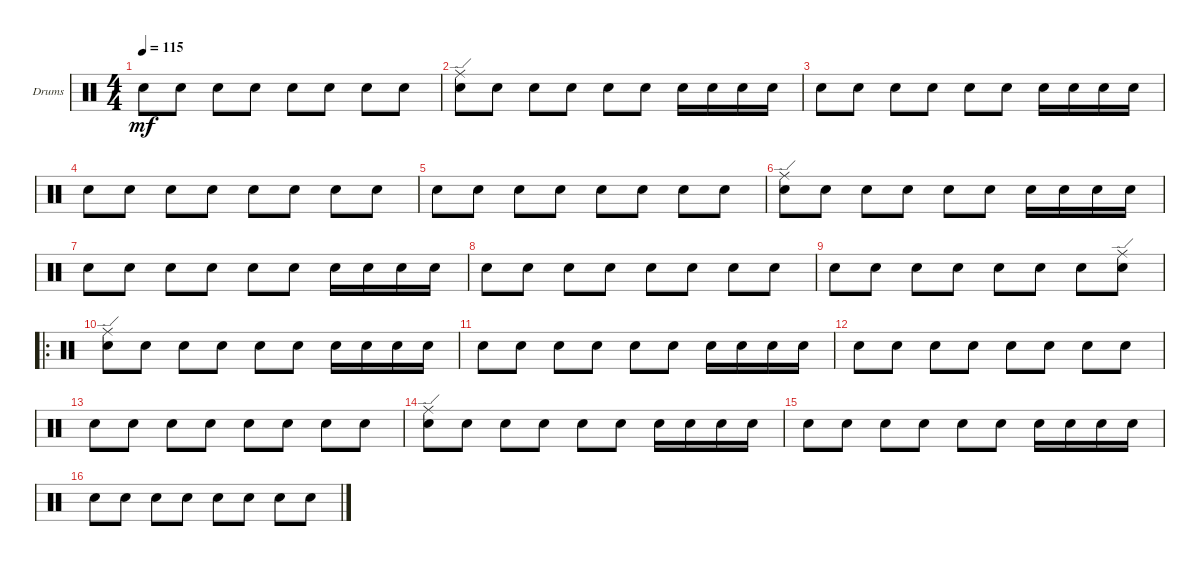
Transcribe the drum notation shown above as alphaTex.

\defaultSystemsLayout 4
\bracketExtendMode groupsimilarinstruments
\firstSystemTrackNameOrientation horizontal
\otherSystemsTrackNameOrientation horizontal
\track ("Drumkit" "Drums") {instrument percussion}
\staff {score}
\articulation defaults
\ts (4 4)
\tempo 115
\clef neutral
\ks c "Snare (hit) 2".8{dy mf} "Snare (hit) 2".8 "Snare (hit) 2".8 "Snare (hit) 2".8 "Snare (hit) 2".8 "Snare (hit) 2".8 "Snare (hit) 2".8 "Snare (hit) 2".8
|
("Snare (hit) 2" "Ride (edge)").8 "Snare (hit) 2".8 "Snare (hit) 2".8 "Snare (hit) 2".8 "Snare (hit) 2".8 "Snare (hit) 2".8 "Snare (hit) 2".16 "Snare (hit) 2".16 "Snare (hit) 2".16 "Snare (hit) 2".16 |
"Snare (hit) 2".8 "Snare (hit) 2".8 "Snare (hit) 2".8 "Snare (hit) 2".8 "Snare (hit) 2".8 "Snare (hit) 2".8 "Snare (hit) 2".16 "Snare (hit) 2".16 "Snare (hit) 2".16 "Snare (hit) 2".16 |
"Snare (hit) 2".8 "Snare (hit) 2".8 "Snare (hit) 2".8 "Snare (hit) 2".8 "Snare (hit) 2".8 "Snare (hit) 2".8 "Snare (hit) 2".8 "Snare (hit) 2".8 |
"Snare (hit) 2".8 "Snare (hit) 2".8 "Snare (hit) 2".8 "Snare (hit) 2".8 "Snare (hit) 2".8 "Snare (hit) 2".8 "Snare (hit) 2".8 "Snare (hit) 2".8 |
("Ride (edge)" "Snare (hit) 2").8 "Snare (hit) 2".8 "Snare (hit) 2".8 "Snare (hit) 2".8 "Snare (hit) 2".8 "Snare (hit) 2".8 "Snare (hit) 2".16 "Snare (hit) 2".16 "Snare (hit) 2".16 "Snare (hit) 2".16 |
"Snare (hit) 2".8 "Snare (hit) 2".8 "Snare (hit) 2".8 "Snare (hit) 2".8 "Snare (hit) 2".8 "Snare (hit) 2".8 "Snare (hit) 2".16 "Snare (hit) 2".16 "Snare (hit) 2".16 "Snare (hit) 2".16 |
"Snare (hit) 2".8 "Snare (hit) 2".8 "Snare (hit) 2".8 "Snare (hit) 2".8 "Snare (hit) 2".8 "Snare (hit) 2".8 "Snare (hit) 2".8 "Snare (hit) 2".8 |
"Snare (hit) 2".8 "Snare (hit) 2".8 "Snare (hit) 2".8 "Snare (hit) 2".8 "Snare (hit) 2".8 "Snare (hit) 2".8 "Snare (hit) 2".8 ("Snare (hit) 2" "Ride (edge)").8 |
\ro
("Snare (hit) 2" "Ride (edge)").8 "Snare (hit) 2".8 "Snare (hit) 2".8 "Snare (hit) 2".8 "Snare (hit) 2".8 "Snare (hit) 2".8 "Snare (hit) 2".16 "Snare (hit) 2".16 "Snare (hit) 2".16 "Snare (hit) 2".16 |
"Snare (hit) 2".8 "Snare (hit) 2".8 "Snare (hit) 2".8 "Snare (hit) 2".8 "Snare (hit) 2".8 "Snare (hit) 2".8 "Snare (hit) 2".16 "Snare (hit) 2".16 "Snare (hit) 2".16 "Snare (hit) 2".16 |
"Snare (hit) 2".8 "Snare (hit) 2".8 "Snare (hit) 2".8 "Snare (hit) 2".8 "Snare (hit) 2".8 "Snare (hit) 2".8 "Snare (hit) 2".8 "Snare (hit) 2".8 |
"Snare (hit) 2".8 "Snare (hit) 2".8 "Snare (hit) 2".8 "Snare (hit) 2".8 "Snare (hit) 2".8 "Snare (hit) 2".8 "Snare (hit) 2".8 "Snare (hit) 2".8 |
("Ride (edge)" "Snare (hit) 2").8 "Snare (hit) 2".8 "Snare (hit) 2".8 "Snare (hit) 2".8 "Snare (hit) 2".8 "Snare (hit) 2".8 "Snare (hit) 2".16 "Snare (hit) 2".16 "Snare (hit) 2".16 "Snare (hit) 2".16 |
"Snare (hit) 2".8 "Snare (hit) 2".8 "Snare (hit) 2".8 "Snare (hit) 2".8 "Snare (hit) 2".8 "Snare (hit) 2".8 "Snare (hit) 2".16 "Snare (hit) 2".16 "Snare (hit) 2".16 "Snare (hit) 2".16 |
"Snare (hit) 2".8 "Snare (hit) 2".8 "Snare (hit) 2".8 "Snare (hit) 2".8 "Snare (hit) 2".8 "Snare (hit) 2".8 "Snare (hit) 2".8 "Snare (hit) 2".8
